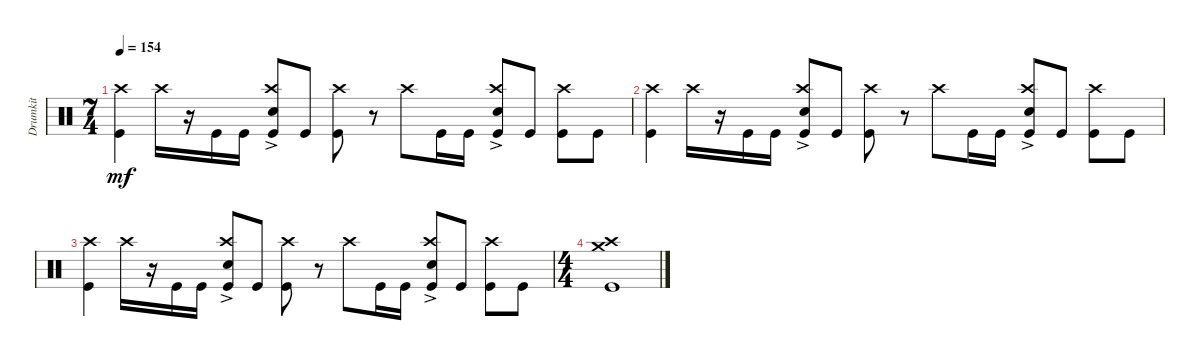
\track ("Drumkit" "Drumkit") {instrument percussion}
\staff {score}
\articulation defaults
\ts (7 4)
\tempo 154
\clef neutral
\ks c
("Kick (hit)" "Crash high (hit)").4{dy mf} "Crash high (hit)".16 r.16 "Kick (hit)".16 "Kick (hit)".16 ("Kick (hit)" "Crash high (hit)" "Snare (hit) 2"{ac}).8 "Kick (hit)".8 ("Kick (hit)" "Crash high (hit)").8 r.8 "Crash high (hit)".8 "Kick (hit)".16 "Kick (hit)".16 ("Kick (hit)" "Crash high (hit)" "Snare (hit) 2"{ac}).8 "Kick (hit)".8 ("Kick (hit)" "Crash high (hit)").8 "Kick (hit)".8 |
("Kick (hit)" "Crash high (hit)").4 "Crash high (hit)".16 r.16 "Kick (hit)".16 "Kick (hit)".16 ("Kick (hit)" "Crash high (hit)" "Snare (hit) 2"{ac}).8 "Kick (hit)".8 ("Kick (hit)" "Crash high (hit)").8 r.8 "Crash high (hit)".8 "Kick (hit)".16 "Kick (hit)".16 ("Kick (hit)" "Crash high (hit)" "Snare (hit) 2"{ac}).8 "Kick (hit)".8 ("Kick (hit)" "Crash high (hit)").8 "Kick (hit)".8 |
("Kick (hit)" "Crash high (hit)").4 "Crash high (hit)".16 r.16 "Kick (hit)".16 "Kick (hit)".16 ("Kick (hit)" "Crash high (hit)" "Snare (hit) 2"{ac}).8 "Kick (hit)".8 ("Kick (hit)" "Crash high (hit)").8 r.8 "Crash high (hit)".8 "Kick (hit)".16 "Kick (hit)".16 ("Kick (hit)" "Crash high (hit)" "Snare (hit) 2"{ac}).8 "Kick (hit)".8 ("Kick (hit)" "Crash high (hit)").8 "Kick (hit)".8 |
\ts (4 4)
("Kick (hit)" "Crash high (hit)" "Crash medium (hit)").1
